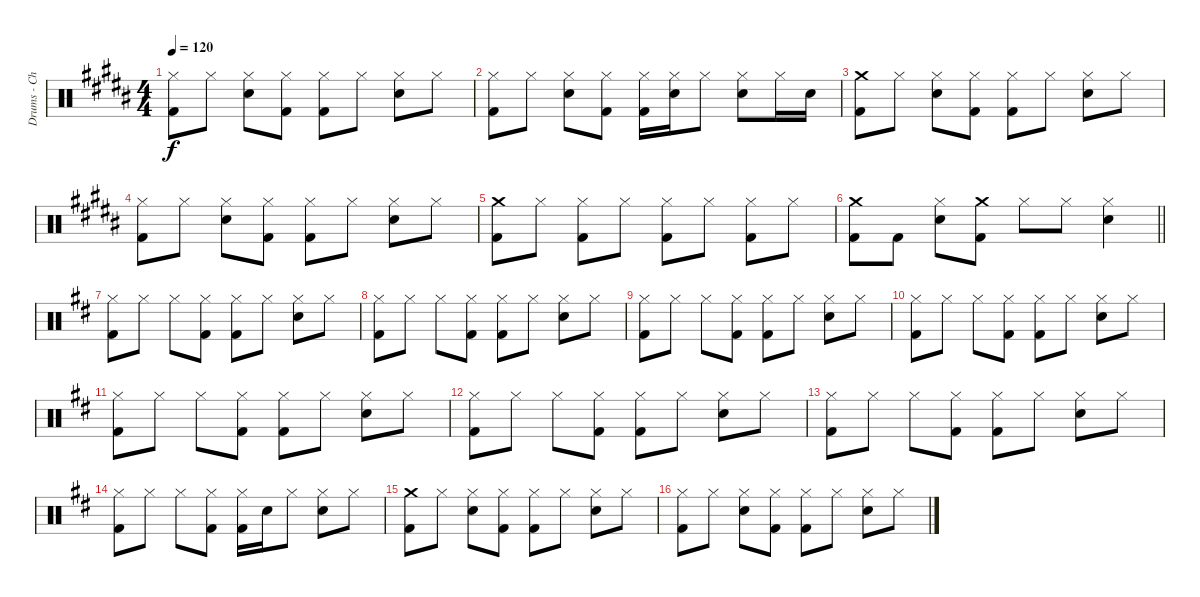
\track ("Drums - Choi Min Hwan" "Drums - Ch") {instrument percussion}
\staff {score}
\articulation defaults
\ts (4 4)
\tempo 120
\clef neutral
\ks g#minor
("Hi-Hat (closed)" "Kick (hit) 2").8{dy f} "Hi-Hat (closed)".8 ("Hi-Hat (closed)" "Electric Snare (hit)").8 ("Hi-Hat (closed)" "Kick (hit) 2").8 ("Hi-Hat (closed)" "Kick (hit) 2").8 "Hi-Hat (closed)".8 ("Hi-Hat (closed)" "Electric Snare (hit)").8 "Hi-Hat (closed)".8 |
("Hi-Hat (closed)" "Kick (hit) 2").8 "Hi-Hat (closed)".8 ("Hi-Hat (closed)" "Electric Snare (hit)").8 ("Hi-Hat (closed)" "Kick (hit) 2").8 ("Hi-Hat (closed)" "Kick (hit) 2").16 ("Hi-Hat (closed)" "Electric Snare (hit)").16 "Hi-Hat (closed)".8 ("Hi-Hat (closed)" "Electric Snare (hit)").8 "Hi-Hat (closed)".16 "Electric Snare (hit)".16 |
("Crash medium (hit)" "Kick (hit) 2").8 "Hi-Hat (closed)".8 ("Hi-Hat (closed)" "Electric Snare (hit)").8 ("Hi-Hat (closed)" "Kick (hit) 2").8 ("Hi-Hat (closed)" "Kick (hit) 2").8 "Hi-Hat (closed)".8 ("Hi-Hat (closed)" "Electric Snare (hit)").8 "Hi-Hat (closed)".8 |
("Hi-Hat (closed)" "Kick (hit) 2").8 "Hi-Hat (closed)".8 ("Hi-Hat (closed)" "Electric Snare (hit)").8 ("Hi-Hat (closed)" "Kick (hit) 2").8 ("Hi-Hat (closed)" "Kick (hit) 2").8 "Hi-Hat (closed)".8 ("Hi-Hat (closed)" "Electric Snare (hit)").8 "Hi-Hat (closed)".8 |
("Crash medium (hit)" "Kick (hit) 2").8 "Hi-Hat (closed)".8 ("Hi-Hat (closed)" "Kick (hit) 2").8 "Hi-Hat (closed)".8 ("Hi-Hat (closed)" "Kick (hit) 2").8 "Hi-Hat (closed)".8 ("Hi-Hat (closed)" "Kick (hit) 2").8 "Hi-Hat (closed)".8 |
\barLineRight lightlight
("Crash medium (hit)" "Kick (hit) 2").8 "Kick (hit) 2".8 ("Hi-Hat (closed)" "Electric Snare (hit)").8 ("Crash medium (hit)" "Kick (hit) 2").8 "Hi-Hat (closed)".8 "Hi-Hat (closed)".8 ("Hi-Hat (closed)" "Electric Snare (hit)").4 |
\ks bminor
("Hi-Hat (closed)" "Kick (hit) 2").8 "Hi-Hat (closed)".8 "Hi-Hat (closed)".8 ("Hi-Hat (closed)" "Kick (hit) 2").8 ("Hi-Hat (closed)" "Kick (hit) 2").8 "Hi-Hat (closed)".8 ("Hi-Hat (closed)" "Electric Snare (hit)").8 "Hi-Hat (closed)".8 |
("Hi-Hat (closed)" "Kick (hit) 2").8 "Hi-Hat (closed)".8 "Hi-Hat (closed)".8 ("Hi-Hat (closed)" "Kick (hit) 2").8 ("Hi-Hat (closed)" "Kick (hit) 2").8 "Hi-Hat (closed)".8 ("Hi-Hat (closed)" "Electric Snare (hit)").8 "Hi-Hat (closed)".8 |
("Hi-Hat (closed)" "Kick (hit) 2").8 "Hi-Hat (closed)".8 "Hi-Hat (closed)".8 ("Hi-Hat (closed)" "Kick (hit) 2").8 ("Hi-Hat (closed)" "Kick (hit) 2").8 "Hi-Hat (closed)".8 ("Hi-Hat (closed)" "Electric Snare (hit)").8 "Hi-Hat (closed)".8 |
("Hi-Hat (closed)" "Kick (hit) 2").8 "Hi-Hat (closed)".8 "Hi-Hat (closed)".8 ("Hi-Hat (closed)" "Kick (hit) 2").8 ("Hi-Hat (closed)" "Kick (hit) 2").8 "Hi-Hat (closed)".8 ("Hi-Hat (closed)" "Electric Snare (hit)").8 "Hi-Hat (closed)".8 |
("Hi-Hat (closed)" "Kick (hit) 2").8 "Hi-Hat (closed)".8 "Hi-Hat (closed)".8 ("Hi-Hat (closed)" "Kick (hit) 2").8 ("Hi-Hat (closed)" "Kick (hit) 2").8 "Hi-Hat (closed)".8 ("Hi-Hat (closed)" "Electric Snare (hit)").8 "Hi-Hat (closed)".8 |
("Hi-Hat (closed)" "Kick (hit) 2").8 "Hi-Hat (closed)".8 "Hi-Hat (closed)".8 ("Hi-Hat (closed)" "Kick (hit) 2").8 ("Hi-Hat (closed)" "Kick (hit) 2").8 "Hi-Hat (closed)".8 ("Hi-Hat (closed)" "Electric Snare (hit)").8 "Hi-Hat (closed)".8 |
("Hi-Hat (closed)" "Kick (hit) 2").8 "Hi-Hat (closed)".8 "Hi-Hat (closed)".8 ("Hi-Hat (closed)" "Kick (hit) 2").8 ("Hi-Hat (closed)" "Kick (hit) 2").8 "Hi-Hat (closed)".8 ("Hi-Hat (closed)" "Electric Snare (hit)").8 "Hi-Hat (closed)".8 |
("Hi-Hat (closed)" "Kick (hit) 2").8 "Hi-Hat (closed)".8 "Hi-Hat (closed)".8 ("Hi-Hat (closed)" "Kick (hit) 2").8 ("Hi-Hat (closed)" "Kick (hit) 2").16 "Electric Snare (hit)".16 "Hi-Hat (closed)".8 ("Hi-Hat (closed)" "Electric Snare (hit)").8 "Hi-Hat (closed)".8 |
("Crash medium (hit)" "Kick (hit) 2").8 "Hi-Hat (closed)".8 ("Hi-Hat (closed)" "Electric Snare (hit)").8 ("Hi-Hat (closed)" "Kick (hit) 2").8 ("Hi-Hat (closed)" "Kick (hit) 2").8 "Hi-Hat (closed)".8 ("Hi-Hat (closed)" "Electric Snare (hit)").8 "Hi-Hat (closed)".8 |
("Hi-Hat (closed)" "Kick (hit) 2").8 "Hi-Hat (closed)".8 ("Hi-Hat (closed)" "Electric Snare (hit)").8 ("Hi-Hat (closed)" "Kick (hit) 2").8 ("Hi-Hat (closed)" "Kick (hit) 2").8 "Hi-Hat (closed)".8 ("Hi-Hat (closed)" "Electric Snare (hit)").8 "Hi-Hat (closed)".8
